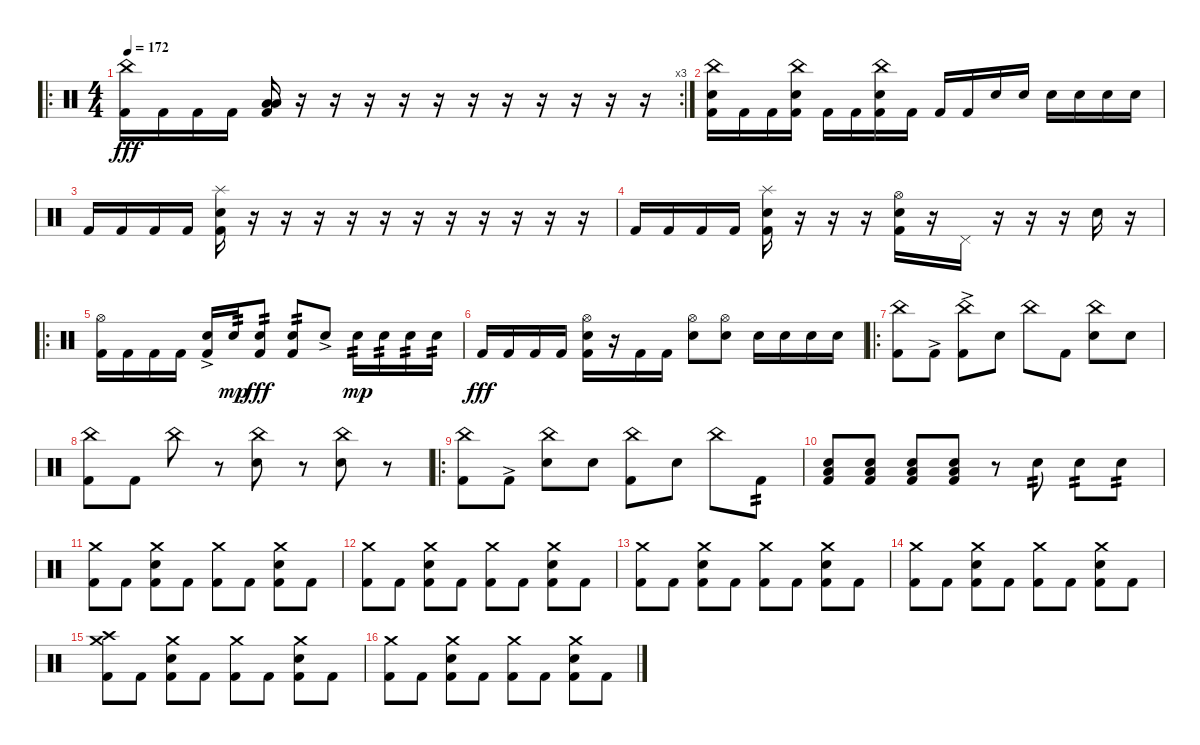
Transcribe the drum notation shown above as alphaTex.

\track (" " " ") {instrument percussion}
\staff {score}
\articulation defaults
\ro
\rc 3
\ts (4 4)
\tempo 172
\clef neutral
\ks c
("China (hit)" "Kick (hit) 2").16{dy fff} "Kick (hit) 2".16 "Kick (hit) 2".16 "Kick (hit) 2".16 ("Low Tom (hit)" "Low Floor Tom (hit)" "Kick (hit) 2").16 r.16 r.16 r.16 r.16 r.16 r.16 r.16 r.16 r.16 r.16 r.16 |
("China (hit)" "Snare (hit) 2" "Kick (hit) 2").16 "Kick (hit) 2".16 "Kick (hit) 2".16 ("China (hit)" "Snare (hit) 2" "Kick (hit) 2").16 "Kick (hit) 2".16 "Kick (hit) 2".16 ("China (hit)" "Snare (hit) 2" "Kick (hit) 2").16 "Kick (hit) 2".16 "Kick (hit) 2".16 "Kick (hit) 2".16 "Snare (hit) 2".16 "Snare (hit) 2".16 "Snare (hit) 2".16 "Snare (hit) 2".16 "Snare (hit) 2".16 "Snare (hit) 2".16 |
"Kick (hit) 2".16 "Kick (hit) 2".16 "Kick (hit) 2".16 "Kick (hit) 2".16 ("Splash (hit)" "Snare (hit) 2" "Kick (hit) 2").16 r.16 r.16 r.16 r.16 r.16 r.16 r.16 r.16 r.16 r.16 r.16 |
"Kick (hit) 2".16 "Kick (hit) 2".16 "Kick (hit) 2".16 "Kick (hit) 2".16 ("Splash (hit)" "Snare (hit) 2" "Kick (hit) 2").16 r.16 r.16 r.16 ("Hi-Hat (open)" "Snare (hit) 2" "Kick (hit) 2").16 r.16 "Pedal Hi-Hat (hit)".16 r.16 r.16 r.16 "Snare (hit) 2".16 r.16 |
\ro
("Hi-Hat (open)" "Kick (hit) 2").16 "Kick (hit) 2".16 "Kick (hit) 2".16 "Kick (hit) 2".16 ("Snare (hit) 2"{ac} "Kick (hit) 2").16 "Snare (hit) 2".16{tp 2 dy mp} ("Snare (hit) 2" "Kick (hit) 2").8{tp 2 dy fff} ("Snare (hit) 2" "Kick (hit) 2").8{tp 2} "Snare (hit) 2"{ac}.8 "Snare (hit) 2".16{tp 2 dy mp} "Snare (hit) 2".16{tp 2} "Snare (hit) 2".16{tp 2} "Snare (hit) 2".16{tp 2} |
"Kick (hit) 2".16{dy fff} "Kick (hit) 2".16 "Kick (hit) 2".16 "Kick (hit) 2".16 ("Hi-Hat (open)" "Snare (hit) 2" "Kick (hit) 2").16 r.16 "Kick (hit) 2".16 "Kick (hit) 2".16 ("Hi-Hat (open)" "Snare (hit) 2").8 ("Hi-Hat (open)" "Snare (hit) 2").8 "Snare (hit) 2".16 "Snare (hit) 2".16 "Snare (hit) 2".16 "Snare (hit) 2".16 |
\ro
("China (hit)" "Kick (hit) 2").8 "Kick (hit) 2"{ac}.8 ("China (hit)" "Kick (hit) 2"{ac}).8 "Snare (hit) 2".8 "China (hit)".8 "Kick (hit) 2".8 ("China (hit)" "Snare (hit) 2").8 "Snare (hit) 2".8 |
("China (hit)" "Kick (hit) 2").8 "Kick (hit) 2".8 "China (hit)".8 r.8 ("China (hit)" "Snare (hit) 2").8 r.8 ("China (hit)" "Snare (hit) 2").8 r.8 |
\ro
("China (hit)" "Kick (hit) 2").8 "Kick (hit) 2"{ac}.8 ("China (hit)" "Snare (hit) 2").8 "Snare (hit) 2".8 ("China (hit)" "Kick (hit) 2").8 "Snare (hit) 2".8 "China (hit)".8 "Kick (hit) 2".8{tp 2} |
("Snare (hit) 2" "Low Floor Tom (hit)" "Kick (hit) 2").8 ("Snare (hit) 2" "Low Floor Tom (hit)" "Kick (hit) 2").8 ("Snare (hit) 2" "Low Floor Tom (hit)" "Kick (hit) 2").8 ("Snare (hit) 2" "Low Floor Tom (hit)" "Kick (hit) 2").8 r.8 "Snare (hit) 2".8{tp 2} "Snare (hit) 2".8{tp 2} "Snare (hit) 2".8{tp 2} |
("Crash medium (hit)" "Kick (hit) 2").8 "Kick (hit) 2".8 ("Crash medium (hit)" "Snare (hit) 2" "Kick (hit) 2").8 "Kick (hit) 2".8 ("Crash medium (hit)" "Kick (hit) 2").8 "Kick (hit) 2".8 ("Crash medium (hit)" "Snare (hit) 2" "Kick (hit) 2").8 "Kick (hit) 2".8 |
("Crash medium (hit)" "Kick (hit) 2").8 "Kick (hit) 2".8 ("Crash medium (hit)" "Snare (hit) 2" "Kick (hit) 2").8 "Kick (hit) 2".8 ("Crash medium (hit)" "Kick (hit) 2").8 "Kick (hit) 2".8 ("Crash medium (hit)" "Snare (hit) 2" "Kick (hit) 2").8 "Kick (hit) 2".8 |
("Crash medium (hit)" "Kick (hit) 2").8 "Kick (hit) 2".8 ("Crash medium (hit)" "Snare (hit) 2" "Kick (hit) 2").8 "Kick (hit) 2".8 ("Crash medium (hit)" "Kick (hit) 2").8 "Kick (hit) 2".8 ("Crash medium (hit)" "Snare (hit) 2" "Kick (hit) 2").8 "Kick (hit) 2".8 |
("Crash medium (hit)" "Kick (hit) 2").8 "Kick (hit) 2".8 ("Crash medium (hit)" "Snare (hit) 2" "Kick (hit) 2").8 "Kick (hit) 2".8 ("Crash medium (hit)" "Kick (hit) 2").8 "Kick (hit) 2".8 ("Crash medium (hit)" "Snare (hit) 2" "Kick (hit) 2").8 "Kick (hit) 2".8 |
("Crash medium (hit)" "Crash high (hit)" "Kick (hit) 2").8 "Kick (hit) 2".8 ("Crash medium (hit)" "Snare (hit) 2" "Kick (hit) 2").8 "Kick (hit) 2".8 ("Crash medium (hit)" "Kick (hit) 2").8 "Kick (hit) 2".8 ("Crash medium (hit)" "Snare (hit) 2" "Kick (hit) 2").8 "Kick (hit) 2".8 |
("Crash medium (hit)" "Kick (hit) 2").8 "Kick (hit) 2".8 ("Crash medium (hit)" "Snare (hit) 2" "Kick (hit) 2").8 "Kick (hit) 2".8 ("Crash medium (hit)" "Kick (hit) 2").8 "Kick (hit) 2".8 ("Crash medium (hit)" "Snare (hit) 2" "Kick (hit) 2").8 "Kick (hit) 2".8
